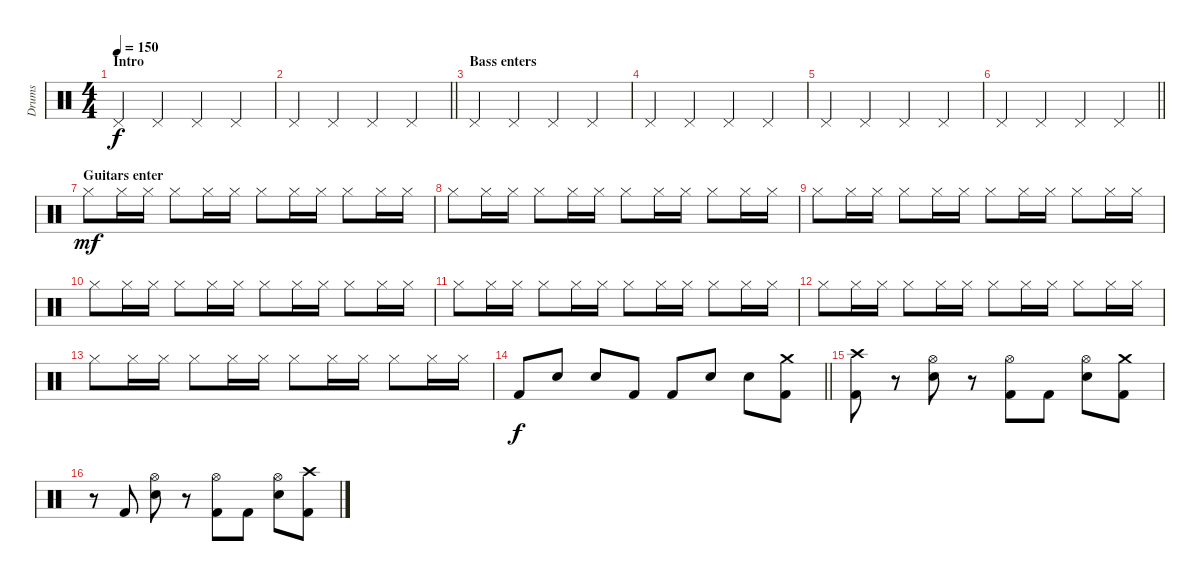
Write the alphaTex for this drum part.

\track ("Drums" "Drums") {instrument percussion}
\staff {score}
\articulation defaults
\ts (4 4)
\section ("" "Intro")
\tempo 150
\clef neutral
\ks c "Pedal Hi-Hat (hit)".4{dy f} "Pedal Hi-Hat (hit)".4 "Pedal Hi-Hat (hit)".4 "Pedal Hi-Hat (hit)".4
|
\barLineRight lightlight "Pedal Hi-Hat (hit)".4 "Pedal Hi-Hat (hit)".4 "Pedal Hi-Hat (hit)".4 "Pedal Hi-Hat (hit)".4
|
\section ("" "Bass enters")
"Pedal Hi-Hat (hit)".4 "Pedal Hi-Hat (hit)".4 "Pedal Hi-Hat (hit)".4 "Pedal Hi-Hat (hit)".4 |
"Pedal Hi-Hat (hit)".4 "Pedal Hi-Hat (hit)".4 "Pedal Hi-Hat (hit)".4 "Pedal Hi-Hat (hit)".4 |
"Pedal Hi-Hat (hit)".4 "Pedal Hi-Hat (hit)".4 "Pedal Hi-Hat (hit)".4 "Pedal Hi-Hat (hit)".4 |
\barLineRight lightlight "Pedal Hi-Hat (hit)".4 "Pedal Hi-Hat (hit)".4 "Pedal Hi-Hat (hit)".4 "Pedal Hi-Hat (hit)".4
|
\section ("" "Guitars enter")
"Hi-Hat (closed)".8{dy mf} "Hi-Hat (closed)".16 "Hi-Hat (closed)".16 "Hi-Hat (closed)".8 "Hi-Hat (closed)".16 "Hi-Hat (closed)".16 "Hi-Hat (closed)".8 "Hi-Hat (closed)".16 "Hi-Hat (closed)".16 "Hi-Hat (closed)".8 "Hi-Hat (closed)".16 "Hi-Hat (closed)".16 |
"Hi-Hat (closed)".8 "Hi-Hat (closed)".16 "Hi-Hat (closed)".16 "Hi-Hat (closed)".8 "Hi-Hat (closed)".16 "Hi-Hat (closed)".16 "Hi-Hat (closed)".8 "Hi-Hat (closed)".16 "Hi-Hat (closed)".16 "Hi-Hat (closed)".8 "Hi-Hat (closed)".16 "Hi-Hat (closed)".16 |
"Hi-Hat (closed)".8 "Hi-Hat (closed)".16 "Hi-Hat (closed)".16 "Hi-Hat (closed)".8 "Hi-Hat (closed)".16 "Hi-Hat (closed)".16 "Hi-Hat (closed)".8 "Hi-Hat (closed)".16 "Hi-Hat (closed)".16 "Hi-Hat (closed)".8 "Hi-Hat (closed)".16 "Hi-Hat (closed)".16 |
"Hi-Hat (closed)".8 "Hi-Hat (closed)".16 "Hi-Hat (closed)".16 "Hi-Hat (closed)".8 "Hi-Hat (closed)".16 "Hi-Hat (closed)".16 "Hi-Hat (closed)".8 "Hi-Hat (closed)".16 "Hi-Hat (closed)".16 "Hi-Hat (closed)".8 "Hi-Hat (closed)".16 "Hi-Hat (closed)".16 |
"Hi-Hat (closed)".8 "Hi-Hat (closed)".16 "Hi-Hat (closed)".16 "Hi-Hat (closed)".8 "Hi-Hat (closed)".16 "Hi-Hat (closed)".16 "Hi-Hat (closed)".8 "Hi-Hat (closed)".16 "Hi-Hat (closed)".16 "Hi-Hat (closed)".8 "Hi-Hat (closed)".16 "Hi-Hat (closed)".16 |
"Hi-Hat (closed)".8 "Hi-Hat (closed)".16 "Hi-Hat (closed)".16 "Hi-Hat (closed)".8 "Hi-Hat (closed)".16 "Hi-Hat (closed)".16 "Hi-Hat (closed)".8 "Hi-Hat (closed)".16 "Hi-Hat (closed)".16 "Hi-Hat (closed)".8 "Hi-Hat (closed)".16 "Hi-Hat (closed)".16 |
"Hi-Hat (closed)".8 "Hi-Hat (closed)".16 "Hi-Hat (closed)".16 "Hi-Hat (closed)".8 "Hi-Hat (closed)".16 "Hi-Hat (closed)".16 "Hi-Hat (closed)".8 "Hi-Hat (closed)".16 "Hi-Hat (closed)".16 "Hi-Hat (closed)".8 "Hi-Hat (closed)".16 "Hi-Hat (closed)".16 |
\barLineRight lightlight "Kick (hit) 2".8{dy f} "Electric Snare (hit)".8 "Electric Snare (hit)".8 "Kick (hit) 2".8 "Kick (hit) 2".8 "Snare (hit) 2".8 "Snare (hit) 2".8
("Crash medium (hit)" "Kick (hit) 2").8 |
\section ("" "")
("Crash high (hit)" "Kick (hit) 2").8 r.8 ("Hi-Hat (open)" "Snare (hit) 2").8 r.8 ("Hi-Hat (open)" "Kick (hit) 2").8 "Kick (hit) 2".8 ("Hi-Hat (open)" "Snare (hit) 2").8 ("Crash medium (hit)" "Kick (hit) 2").8 |
r.8 "Kick (hit) 2".8 ("Hi-Hat (open)" "Snare (hit) 2").8 r.8 ("Hi-Hat (open)" "Kick (hit) 2").8 "Kick (hit) 2".8 ("Hi-Hat (open)" "Snare (hit) 2").8 ("Crash high (hit)" "Kick (hit) 2").8
